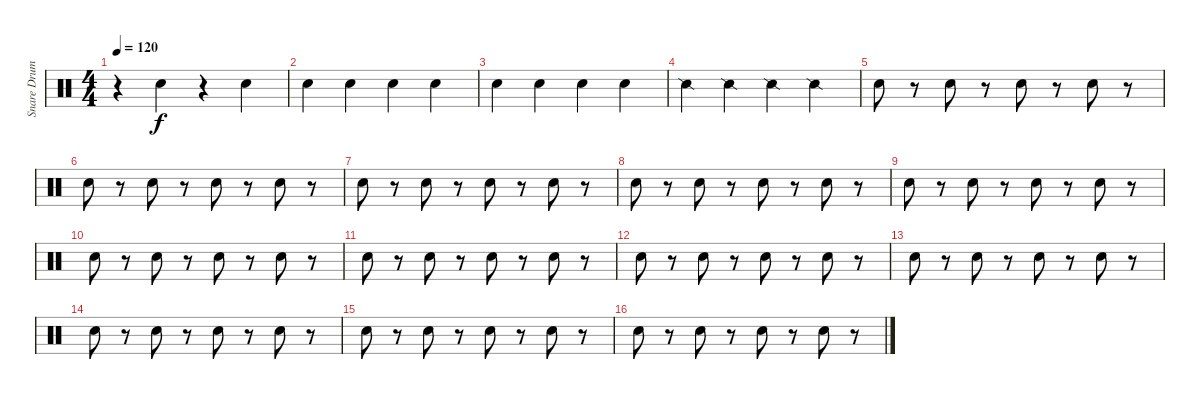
\track ("Snare Drum" "Snare Drum") {instrument percussion}
\staff {score}
\articulation defaults
\ts (4 4)
\tempo 120
\clef neutral
\ks c
r.4{dy f} "Snare (hit) 2".4 r.4 "Snare (hit) 2".4 |
"Hand Clap (hit)".4 "Hand Clap (hit)".4 "Hand Clap (hit)".4 "Hand Clap (hit)".4 |
"Hand Clap (hit)".4 "Hand Clap (hit)".4 "Hand Clap (hit)".4 "Hand Clap (hit)".4 |
"Snare (side stick) 2".4 "Snare (side stick) 2".4 "Snare (side stick) 2".4 "Snare (side stick) 2".4 |
"Electric Snare (hit)".8 r.8 "Electric Snare (hit)".8 r.8 "Electric Snare (hit)".8 r.8 "Electric Snare (hit)".8 r.8 |
"Electric Snare (hit)".8 r.8 "Electric Snare (hit)".8 r.8 "Electric Snare (hit)".8 r.8 "Electric Snare (hit)".8 r.8 |
"Electric Snare (hit)".8 r.8 "Electric Snare (hit)".8 r.8 "Electric Snare (hit)".8 r.8 "Electric Snare (hit)".8 r.8 |
"Electric Snare (hit)".8 r.8 "Electric Snare (hit)".8 r.8 "Electric Snare (hit)".8 r.8 "Electric Snare (hit)".8 r.8 |
"Electric Snare (hit)".8 r.8 "Electric Snare (hit)".8 r.8 "Electric Snare (hit)".8 r.8 "Electric Snare (hit)".8 r.8 |
"Electric Snare (hit)".8 r.8 "Electric Snare (hit)".8 r.8 "Electric Snare (hit)".8 r.8 "Electric Snare (hit)".8 r.8 |
"Electric Snare (hit)".8 r.8 "Electric Snare (hit)".8 r.8 "Electric Snare (hit)".8 r.8 "Electric Snare (hit)".8 r.8 |
"Electric Snare (hit)".8 r.8 "Electric Snare (hit)".8 r.8 "Electric Snare (hit)".8 r.8 "Electric Snare (hit)".8 r.8 |
"Snare (hit) 2".8 r.8 "Snare (hit) 2".8 r.8 "Snare (hit) 2".8 r.8 "Snare (hit) 2".8 r.8 |
"Snare (hit) 2".8 r.8 "Snare (hit) 2".8 r.8 "Snare (hit) 2".8 r.8 "Snare (hit) 2".8 r.8 |
"Snare (hit) 2".8 r.8 "Snare (hit) 2".8 r.8 "Snare (hit) 2".8 r.8 "Snare (hit) 2".8 r.8 |
"Snare (hit) 2".8 r.8 "Snare (hit) 2".8 r.8 "Snare (hit) 2".8 r.8 "Snare (hit) 2".8 r.8
